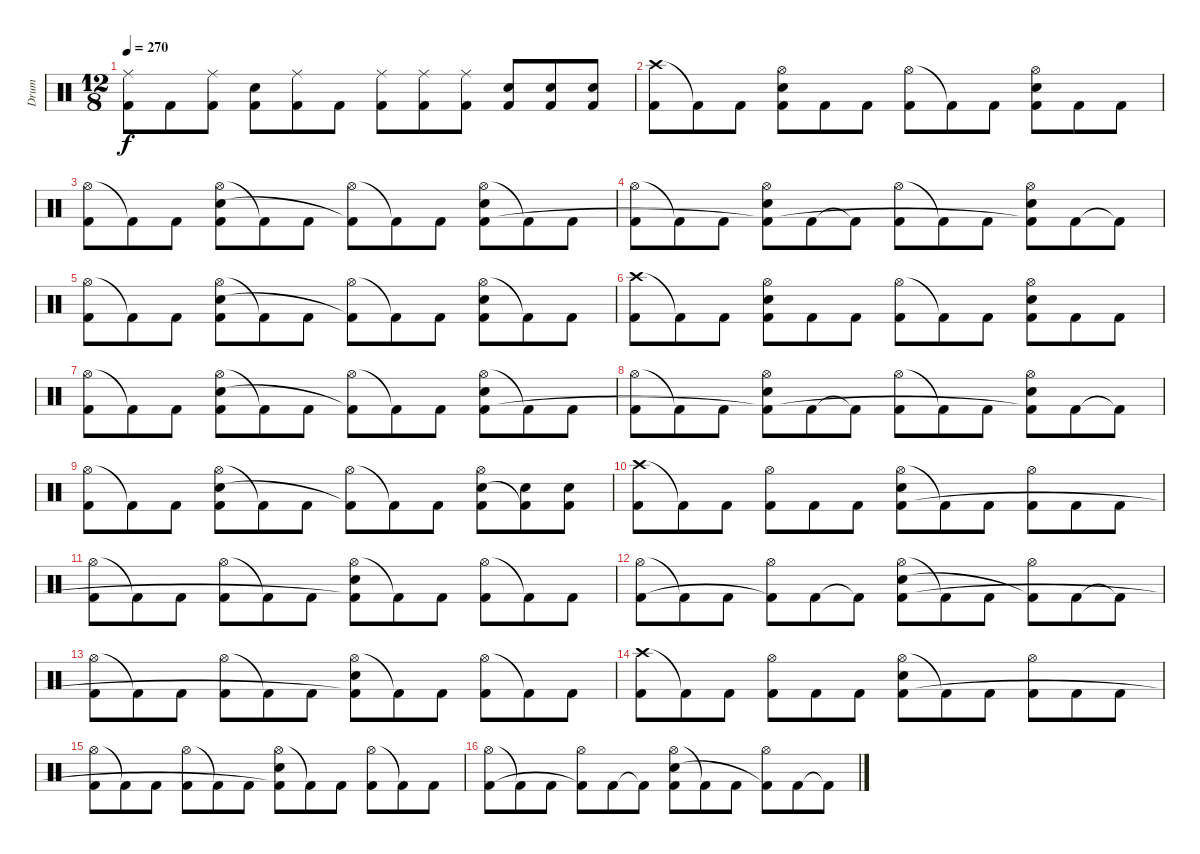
\track ("Drum" "Drum") {instrument percussion}
\staff {score}
\articulation defaults
\ts (12 8)
\tempo 270
\clef neutral
\ks c
("Ride (middle)" "Kick (hit) 2").8{dy f} "Kick (hit) 2".8 ("Ride (middle)" "Kick (hit) 2").8 ("Electric Snare (hit)" "Kick (hit) 2").8 ("Ride (middle)" "Kick (hit) 2").8 "Kick (hit) 2".8 ("Ride (middle)" "Kick (hit) 2").8 ("Ride (middle)" "Kick (hit) 2").8 ("Ride (middle)" "Kick (hit) 2").8 ("Electric Snare (hit)" "Kick (hit) 2").8 ("Electric Snare (hit)" "Kick (hit) 2").8 ("Electric Snare (hit)" "Kick (hit) 2").8 |
("Crash high (hit)" "Kick (hit) 2").8 "Kick (hit) 2"{t}.8 "Kick (hit) 2".8 ("Hi-Hat (open)" "Electric Snare (hit)" "Kick (hit) 2").8 "Kick (hit) 2".8 "Kick (hit) 2".8 ("Hi-Hat (open)" "Kick (hit) 2").8 "Kick (hit) 2"{t}.8 "Kick (hit) 2".8 ("Hi-Hat (open)" "Electric Snare (hit)" "Kick (hit) 2").8 "Kick (hit) 2".8 "Kick (hit) 2".8 |
("Hi-Hat (open)" "Kick (hit) 2").8 "Kick (hit) 2"{t}.8 "Kick (hit) 2".8 ("Hi-Hat (open)" "Electric Snare (hit)" "Kick (hit) 2").8 "Kick (hit) 2"{t}.8 "Kick (hit) 2".8 ("Hi-Hat (open)" "Kick (hit) 2"{t}).8 "Kick (hit) 2"{t}.8 "Kick (hit) 2".8 ("Hi-Hat (open)" "Electric Snare (hit)" "Kick (hit) 2").8 "Kick (hit) 2"{t}.8 "Kick (hit) 2".8 |
("Hi-Hat (open)" "Kick (hit) 2").8 "Kick (hit) 2"{t}.8 "Kick (hit) 2".8 ("Hi-Hat (open)" "Electric Snare (hit)" "Kick (hit) 2"{t}).8 "Kick (hit) 2".8 "Kick (hit) 2"{t}.8 ("Hi-Hat (open)" "Kick (hit) 2").8 "Kick (hit) 2"{t}.8 "Kick (hit) 2".8 ("Hi-Hat (open)" "Electric Snare (hit)" "Kick (hit) 2"{t}).8 "Kick (hit) 2".8 "Kick (hit) 2"{t}.8 |
("Hi-Hat (open)" "Kick (hit) 2").8 "Kick (hit) 2"{t}.8 "Kick (hit) 2".8 ("Hi-Hat (open)" "Electric Snare (hit)" "Kick (hit) 2").8 "Kick (hit) 2"{t}.8 "Kick (hit) 2".8 ("Hi-Hat (open)" "Kick (hit) 2"{t}).8 "Kick (hit) 2"{t}.8 "Kick (hit) 2".8 ("Hi-Hat (open)" "Electric Snare (hit)" "Kick (hit) 2").8 "Kick (hit) 2"{t}.8 "Kick (hit) 2".8 |
("Crash high (hit)" "Kick (hit) 2").8 "Kick (hit) 2"{t}.8 "Kick (hit) 2".8 ("Hi-Hat (open)" "Electric Snare (hit)" "Kick (hit) 2").8 "Kick (hit) 2".8 "Kick (hit) 2".8 ("Hi-Hat (open)" "Kick (hit) 2").8 "Kick (hit) 2"{t}.8 "Kick (hit) 2".8 ("Hi-Hat (open)" "Electric Snare (hit)" "Kick (hit) 2").8 "Kick (hit) 2".8 "Kick (hit) 2".8 |
("Hi-Hat (open)" "Kick (hit) 2").8 "Kick (hit) 2"{t}.8 "Kick (hit) 2".8 ("Hi-Hat (open)" "Electric Snare (hit)" "Kick (hit) 2").8 "Kick (hit) 2"{t}.8 "Kick (hit) 2".8 ("Hi-Hat (open)" "Kick (hit) 2"{t}).8 "Kick (hit) 2"{t}.8 "Kick (hit) 2".8 ("Hi-Hat (open)" "Electric Snare (hit)" "Kick (hit) 2").8 "Kick (hit) 2"{t}.8 "Kick (hit) 2".8 |
("Hi-Hat (open)" "Kick (hit) 2").8 "Kick (hit) 2"{t}.8 "Kick (hit) 2".8 ("Hi-Hat (open)" "Electric Snare (hit)" "Kick (hit) 2"{t}).8 "Kick (hit) 2".8 "Kick (hit) 2"{t}.8 ("Hi-Hat (open)" "Kick (hit) 2").8 "Kick (hit) 2"{t}.8 "Kick (hit) 2".8 ("Hi-Hat (open)" "Electric Snare (hit)" "Kick (hit) 2"{t}).8 "Kick (hit) 2".8 "Kick (hit) 2"{t}.8 |
("Hi-Hat (open)" "Kick (hit) 2").8 "Kick (hit) 2"{t}.8 "Kick (hit) 2".8 ("Hi-Hat (open)" "Electric Snare (hit)" "Kick (hit) 2").8 "Kick (hit) 2"{t}.8 "Kick (hit) 2".8 ("Hi-Hat (open)" "Kick (hit) 2"{t}).8 "Kick (hit) 2"{t}.8 "Kick (hit) 2".8 ("Hi-Hat (open)" "Electric Snare (hit)" "Kick (hit) 2").8 ("Electric Snare (hit)" "Kick (hit) 2"{t}).8 ("Electric Snare (hit)" "Kick (hit) 2").8 |
("Crash high (hit)" "Kick (hit) 2").8 "Kick (hit) 2"{t}.8 "Kick (hit) 2".8 ("Hi-Hat (open)" "Kick (hit) 2").8 "Kick (hit) 2".8 "Kick (hit) 2".8 ("Hi-Hat (open)" "Electric Snare (hit)" "Kick (hit) 2").8 "Kick (hit) 2"{t}.8 "Kick (hit) 2".8 ("Hi-Hat (open)" "Kick (hit) 2").8 "Kick (hit) 2".8 "Kick (hit) 2".8 |
("Hi-Hat (open)" "Kick (hit) 2").8 "Kick (hit) 2"{t}.8 "Kick (hit) 2".8 ("Hi-Hat (open)" "Kick (hit) 2").8 "Kick (hit) 2"{t}.8 "Kick (hit) 2".8 ("Hi-Hat (open)" "Electric Snare (hit)" "Kick (hit) 2"{t}).8 "Kick (hit) 2"{t}.8 "Kick (hit) 2".8 ("Hi-Hat (open)" "Kick (hit) 2").8 "Kick (hit) 2"{t}.8 "Kick (hit) 2".8 |
("Hi-Hat (open)" "Kick (hit) 2").8 "Kick (hit) 2"{t}.8 "Kick (hit) 2".8 ("Hi-Hat (open)" "Kick (hit) 2"{t}).8 "Kick (hit) 2".8 "Kick (hit) 2"{t}.8 ("Hi-Hat (open)" "Electric Snare (hit)" "Kick (hit) 2").8 "Kick (hit) 2"{t}.8 "Kick (hit) 2".8 ("Hi-Hat (open)" "Kick (hit) 2"{t}).8 "Kick (hit) 2".8 "Kick (hit) 2"{t}.8 |
("Hi-Hat (open)" "Kick (hit) 2").8 "Kick (hit) 2"{t}.8 "Kick (hit) 2".8 ("Hi-Hat (open)" "Kick (hit) 2").8 "Kick (hit) 2"{t}.8 "Kick (hit) 2".8 ("Hi-Hat (open)" "Electric Snare (hit)" "Kick (hit) 2"{t}).8 "Kick (hit) 2"{t}.8 "Kick (hit) 2".8 ("Hi-Hat (open)" "Kick (hit) 2").8 "Kick (hit) 2"{t}.8 "Kick (hit) 2".8 |
("Crash high (hit)" "Kick (hit) 2").8 "Kick (hit) 2"{t}.8 "Kick (hit) 2".8 ("Hi-Hat (open)" "Kick (hit) 2").8 "Kick (hit) 2".8 "Kick (hit) 2".8 ("Hi-Hat (open)" "Electric Snare (hit)" "Kick (hit) 2").8 "Kick (hit) 2"{t}.8 "Kick (hit) 2".8 ("Hi-Hat (open)" "Kick (hit) 2").8 "Kick (hit) 2".8 "Kick (hit) 2".8 |
("Hi-Hat (open)" "Kick (hit) 2").8 "Kick (hit) 2"{t}.8 "Kick (hit) 2".8 ("Hi-Hat (open)" "Kick (hit) 2").8 "Kick (hit) 2"{t}.8 "Kick (hit) 2".8 ("Hi-Hat (open)" "Electric Snare (hit)" "Kick (hit) 2"{t}).8 "Kick (hit) 2"{t}.8 "Kick (hit) 2".8 ("Hi-Hat (open)" "Kick (hit) 2").8 "Kick (hit) 2"{t}.8 "Kick (hit) 2".8 |
("Hi-Hat (open)" "Kick (hit) 2").8 "Kick (hit) 2"{t}.8 "Kick (hit) 2".8 ("Hi-Hat (open)" "Kick (hit) 2"{t}).8 "Kick (hit) 2".8 "Kick (hit) 2"{t}.8 ("Hi-Hat (open)" "Electric Snare (hit)" "Kick (hit) 2").8 "Kick (hit) 2"{t}.8 "Kick (hit) 2".8 ("Hi-Hat (open)" "Kick (hit) 2"{t}).8 "Kick (hit) 2".8 "Kick (hit) 2"{t}.8
